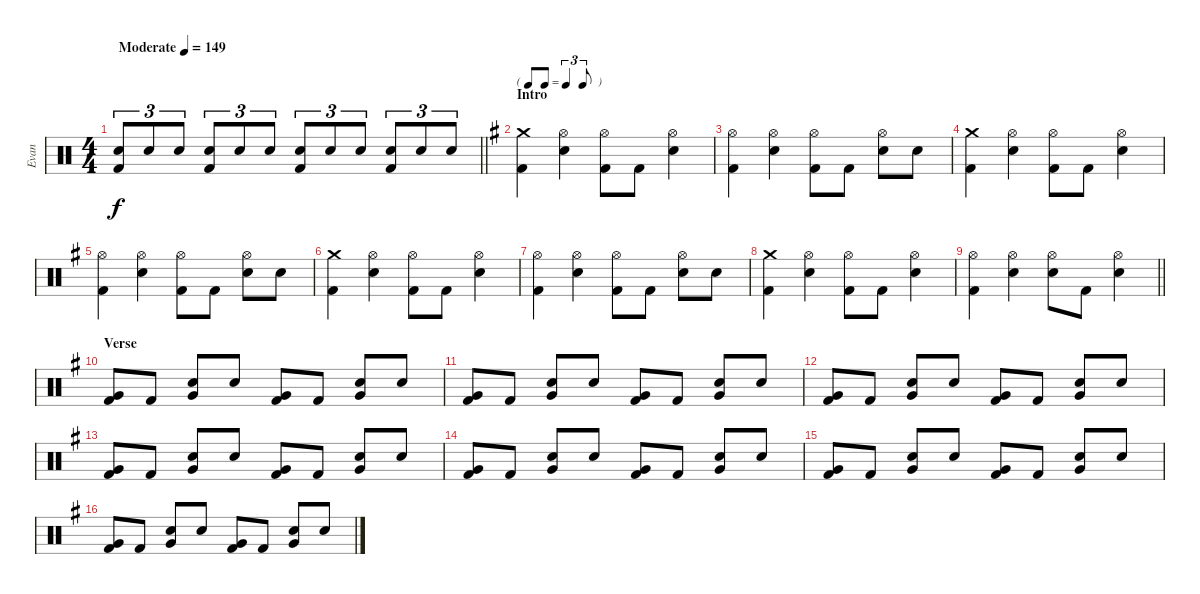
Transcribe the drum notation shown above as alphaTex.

\track ("Evan" "Evan") {instrument percussion}
\staff {score}
\articulation defaults
\ts (4 4)
\tempo (149 "Moderate")
\clef neutral
\barLineRight lightlight
\ks c
("Electric Snare (hit)" "Kick (hit) 2").8{tu (3 2) dy f} "Electric Snare (hit)".8{tu (3 2)} "Electric Snare (hit)".8{tu (3 2)} ("Electric Snare (hit)" "Kick (hit) 2").8{tu (3 2)} "Electric Snare (hit)".8{tu (3 2)} "Electric Snare (hit)".8{tu (3 2)} ("Electric Snare (hit)" "Kick (hit) 2").8{tu (3 2)} "Electric Snare (hit)".8{tu (3 2)} "Electric Snare (hit)".8{tu (3 2)} ("Electric Snare (hit)" "Kick (hit) 2").8{tu (3 2)} "Electric Snare (hit)".8{tu (3 2)} "Electric Snare (hit)".8{tu (3 2)} |
\tf triplet8th
\section ("" "Intro")
\ks g
("Crash medium (hit)" "Kick (hit) 2").4 ("Hi-Hat (open)" "Electric Snare (hit)").4 ("Hi-Hat (open)" "Kick (hit) 2").8 "Kick (hit) 2".8 ("Hi-Hat (open)" "Electric Snare (hit)").4 |
("Hi-Hat (open)" "Kick (hit) 2").4 ("Hi-Hat (open)" "Electric Snare (hit)").4 ("Hi-Hat (open)" "Kick (hit) 2").8 "Kick (hit) 2".8 ("Hi-Hat (open)" "Electric Snare (hit)").8 "Electric Snare (hit)".8 |
("Crash medium (hit)" "Kick (hit) 2").4 ("Hi-Hat (open)" "Electric Snare (hit)").4 ("Hi-Hat (open)" "Kick (hit) 2").8 "Kick (hit) 2".8 ("Hi-Hat (open)" "Electric Snare (hit)").4 |
("Hi-Hat (open)" "Kick (hit) 2").4 ("Hi-Hat (open)" "Electric Snare (hit)").4 ("Hi-Hat (open)" "Kick (hit) 2").8 "Kick (hit) 2".8 ("Hi-Hat (open)" "Electric Snare (hit)").8 "Electric Snare (hit)".8 |
("Crash medium (hit)" "Kick (hit) 2").4 ("Hi-Hat (open)" "Electric Snare (hit)").4 ("Hi-Hat (open)" "Kick (hit) 2").8 "Kick (hit) 2".8 ("Hi-Hat (open)" "Electric Snare (hit)").4 |
("Hi-Hat (open)" "Kick (hit) 2").4 ("Hi-Hat (open)" "Electric Snare (hit)").4 ("Hi-Hat (open)" "Kick (hit) 2").8 "Kick (hit) 2".8 ("Hi-Hat (open)" "Electric Snare (hit)").8 "Electric Snare (hit)".8 |
("Crash medium (hit)" "Kick (hit) 2").4 ("Hi-Hat (open)" "Electric Snare (hit)").4 ("Hi-Hat (open)" "Kick (hit) 2").8 "Kick (hit) 2".8 ("Hi-Hat (open)" "Electric Snare (hit)").4 |
\barLineRight lightlight
("Hi-Hat (open)" "Kick (hit) 2").4 ("Hi-Hat (open)" "Electric Snare (hit)").4 ("Hi-Hat (open)" "Electric Snare (hit)").8 "Kick (hit) 2".8 ("Hi-Hat (open)" "Electric Snare (hit)").4 |
\section ("" "Verse")
("Very Low Tom (hit)" "Kick (hit) 2").8 "Kick (hit) 2".8 ("Electric Snare (hit)" "Very Low Tom (hit)").8 "Electric Snare (hit)".8 ("Very Low Tom (hit)" "Kick (hit) 2").8 "Kick (hit) 2".8 ("Electric Snare (hit)" "Very Low Tom (hit)").8 "Electric Snare (hit)".8 |
("Very Low Tom (hit)" "Kick (hit) 2").8 "Kick (hit) 2".8 ("Electric Snare (hit)" "Very Low Tom (hit)").8 "Electric Snare (hit)".8 ("Very Low Tom (hit)" "Kick (hit) 2").8 "Kick (hit) 2".8 ("Electric Snare (hit)" "Very Low Tom (hit)").8 "Electric Snare (hit)".8 |
("Very Low Tom (hit)" "Kick (hit) 2").8 "Kick (hit) 2".8 ("Electric Snare (hit)" "Very Low Tom (hit)").8 "Electric Snare (hit)".8 ("Very Low Tom (hit)" "Kick (hit) 2").8 "Kick (hit) 2".8 ("Electric Snare (hit)" "Very Low Tom (hit)").8 "Electric Snare (hit)".8 |
("Very Low Tom (hit)" "Kick (hit) 2").8 "Kick (hit) 2".8 ("Electric Snare (hit)" "Very Low Tom (hit)").8 "Electric Snare (hit)".8 ("Very Low Tom (hit)" "Kick (hit) 2").8 "Kick (hit) 2".8 ("Electric Snare (hit)" "Very Low Tom (hit)").8 "Electric Snare (hit)".8 |
("Very Low Tom (hit)" "Kick (hit) 2").8 "Kick (hit) 2".8 ("Electric Snare (hit)" "Very Low Tom (hit)").8 "Electric Snare (hit)".8 ("Very Low Tom (hit)" "Kick (hit) 2").8 "Kick (hit) 2".8 ("Electric Snare (hit)" "Very Low Tom (hit)").8 "Electric Snare (hit)".8 |
("Very Low Tom (hit)" "Kick (hit) 2").8 "Kick (hit) 2".8 ("Electric Snare (hit)" "Very Low Tom (hit)").8 "Electric Snare (hit)".8 ("Very Low Tom (hit)" "Kick (hit) 2").8 "Kick (hit) 2".8 ("Electric Snare (hit)" "Very Low Tom (hit)").8 "Electric Snare (hit)".8 |
("Very Low Tom (hit)" "Kick (hit) 2").8 "Kick (hit) 2".8 ("Electric Snare (hit)" "Very Low Tom (hit)").8 "Electric Snare (hit)".8 ("Very Low Tom (hit)" "Kick (hit) 2").8 "Kick (hit) 2".8 ("Electric Snare (hit)" "Very Low Tom (hit)").8 "Electric Snare (hit)".8
